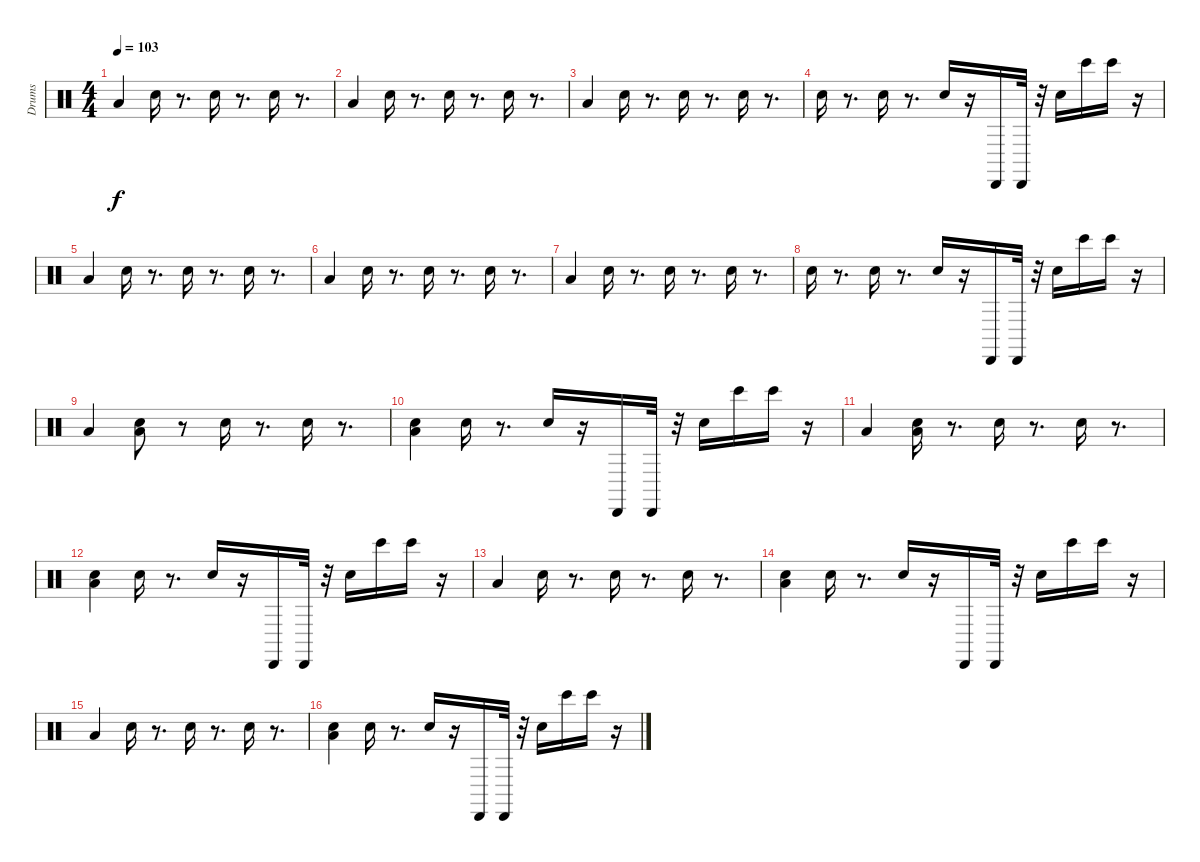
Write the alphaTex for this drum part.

\track ("Drums" "Drums") {instrument percussion}
\staff {score}
\articulation defaults
\ts (4 4)
\tempo 103
\clef neutral
\ks c "Low Tom (hit)".4{dy f} "Electric Snare (hit)".16
r.8{d} "Electric Snare (hit)".16 r.8{d} "Electric Snare (hit)".16 r.8{d} |
"Low Tom (hit)".4 "Electric Snare (hit)".16 r.8{d} "Electric Snare (hit)".16 r.8{d} "Electric Snare (hit)".16 r.8{d} |
"Low Tom (hit)".4 "Electric Snare (hit)".16 r.8{d} "Electric Snare (hit)".16 r.8{d} "Electric Snare (hit)".16 r.8{d} |
"Electric Snare (hit)".16 r.8{d} "Electric Snare (hit)".16 r.8{d} "Electric Snare (hit)".16 r.16 "Cabasa (hit)".16 "Cabasa (hit)".32 r.32 "Electric Snare (hit)".16 "Bongo High (hit)".16 "Bongo High (hit)".16 r.16 |
"Low Tom (hit)".4 "Electric Snare (hit)".16 r.8{d} "Electric Snare (hit)".16 r.8{d} "Electric Snare (hit)".16 r.8{d} |
"Low Tom (hit)".4 "Electric Snare (hit)".16 r.8{d} "Electric Snare (hit)".16 r.8{d} "Electric Snare (hit)".16 r.8{d} |
"Low Tom (hit)".4 "Electric Snare (hit)".16 r.8{d} "Electric Snare (hit)".16 r.8{d} "Electric Snare (hit)".16 r.8{d} |
"Electric Snare (hit)".16 r.8{d} "Electric Snare (hit)".16 r.8{d} "Electric Snare (hit)".16 r.16 "Cabasa (hit)".16 "Cabasa (hit)".32 r.32 "Electric Snare (hit)".16 "Bongo High (hit)".16 "Bongo High (hit)".16 r.16 |
"Low Tom (hit)".4 ("Low Tom (hit)" "Electric Snare (hit)").8 r.8 "Electric Snare (hit)".16 r.8{d} "Electric Snare (hit)".16 r.8{d} |
("Low Tom (hit)" "Electric Snare (hit)").4 "Electric Snare (hit)".16 r.8{d} "Electric Snare (hit)".16 r.16 "Cabasa (hit)".16 "Cabasa (hit)".32 r.32 "Electric Snare (hit)".16 "Bongo High (hit)".16 "Bongo High (hit)".16 r.16 |
"Low Tom (hit)".4 ("Low Tom (hit)" "Electric Snare (hit)").16 r.8{d} "Electric Snare (hit)".16 r.8{d} "Electric Snare (hit)".16 r.8{d} |
("Low Tom (hit)" "Electric Snare (hit)").4 "Electric Snare (hit)".16 r.8{d} "Electric Snare (hit)".16 r.16 "Cabasa (hit)".16 "Cabasa (hit)".32 r.32 "Electric Snare (hit)".16 "Bongo High (hit)".16 "Bongo High (hit)".16 r.16 |
"Low Tom (hit)".4 "Electric Snare (hit)".16 r.8{d} "Electric Snare (hit)".16 r.8{d} "Electric Snare (hit)".16 r.8{d} |
("Low Tom (hit)" "Electric Snare (hit)").4 "Electric Snare (hit)".16 r.8{d} "Electric Snare (hit)".16 r.16 "Cabasa (hit)".16 "Cabasa (hit)".32 r.32 "Electric Snare (hit)".16 "Bongo High (hit)".16 "Bongo High (hit)".16 r.16 |
"Low Tom (hit)".4 "Electric Snare (hit)".16 r.8{d} "Electric Snare (hit)".16 r.8{d} "Electric Snare (hit)".16 r.8{d} |
("Low Tom (hit)" "Electric Snare (hit)").4 "Electric Snare (hit)".16 r.8{d} "Electric Snare (hit)".16 r.16 "Cabasa (hit)".16 "Cabasa (hit)".32 r.32 "Electric Snare (hit)".16 "Bongo High (hit)".16 "Bongo High (hit)".16 r.16
